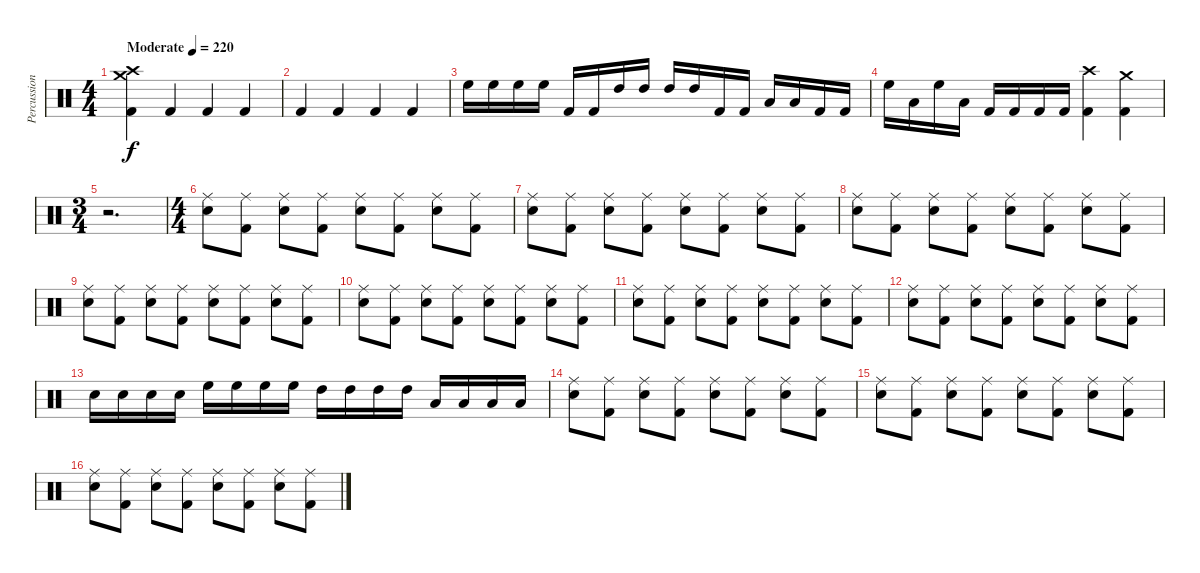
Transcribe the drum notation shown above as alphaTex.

\track ("Percussion" "Percussion") {instrument percussion}
\staff {score}
\articulation defaults
\ts (4 4)
\tempo (220 "Moderate")
\clef neutral
\ks c
("Crash medium (hit)" "Crash high (hit)" "Kick (hit) 2").4{dy f} "Kick (hit) 2".4 "Kick (hit) 2".4 "Kick (hit) 2".4 |
"Kick (hit) 2".4 "Kick (hit) 2".4 "Kick (hit) 2".4 "Kick (hit) 2".4 |
"High Floor Tom (hit)".16 "High Floor Tom (hit)".16 "High Floor Tom (hit)".16 "High Floor Tom (hit)".16 "Kick (hit) 2".16 "Kick (hit) 2".16 "High Tom (hit)".16 "High Tom (hit)".16 "High Tom (hit)".16 "High Tom (hit)".16 "Kick (hit) 2".16 "Kick (hit) 2".16 "Low Floor Tom (hit)".16 "Low Floor Tom (hit)".16 "Kick (hit) 2".16 "Kick (hit) 2".16 |
"High Floor Tom (hit)".16 "Low Floor Tom (hit)".16 "High Floor Tom (hit)".16 "Low Floor Tom (hit)".16 "Kick (hit) 2".16 "Kick (hit) 2".16 "Kick (hit) 2".16 "Kick (hit) 2".16 ("Crash high (hit)" "Kick (hit) 2").4 ("Crash medium (hit)" "Kick (hit) 2").4 |
\ts (3 4)
r.2{d} |
\ts (4 4)
("Ride (middle)" "Snare (hit) 2").8 ("Ride (middle)" "Kick (hit) 2").8 ("Ride (middle)" "Snare (hit) 2").8 ("Ride (middle)" "Kick (hit) 2").8 ("Ride (middle)" "Snare (hit) 2").8 ("Ride (middle)" "Kick (hit) 2").8 ("Ride (middle)" "Snare (hit) 2").8 ("Ride (middle)" "Kick (hit) 2").8 |
("Ride (middle)" "Snare (hit) 2").8 ("Ride (middle)" "Kick (hit) 2").8 ("Ride (middle)" "Snare (hit) 2").8 ("Ride (middle)" "Kick (hit) 2").8 ("Ride (middle)" "Snare (hit) 2").8 ("Ride (middle)" "Kick (hit) 2").8 ("Ride (middle)" "Snare (hit) 2").8 ("Ride (middle)" "Kick (hit) 2").8 |
("Ride (middle)" "Snare (hit) 2").8 ("Ride (middle)" "Kick (hit) 2").8 ("Ride (middle)" "Snare (hit) 2").8 ("Ride (middle)" "Kick (hit) 2").8 ("Ride (middle)" "Snare (hit) 2").8 ("Ride (middle)" "Kick (hit) 2").8 ("Ride (middle)" "Snare (hit) 2").8 ("Ride (middle)" "Kick (hit) 2").8 |
("Ride (middle)" "Snare (hit) 2").8 ("Ride (middle)" "Kick (hit) 2").8 ("Ride (middle)" "Snare (hit) 2").8 ("Ride (middle)" "Kick (hit) 2").8 ("Ride (middle)" "Snare (hit) 2").8 ("Ride (middle)" "Kick (hit) 2").8 ("Ride (middle)" "Snare (hit) 2").8 ("Ride (middle)" "Kick (hit) 2").8 |
("Ride (middle)" "Snare (hit) 2").8 ("Ride (middle)" "Kick (hit) 2").8 ("Ride (middle)" "Snare (hit) 2").8 ("Ride (middle)" "Kick (hit) 2").8 ("Ride (middle)" "Snare (hit) 2").8 ("Ride (middle)" "Kick (hit) 2").8 ("Ride (middle)" "Snare (hit) 2").8 ("Ride (middle)" "Kick (hit) 2").8 |
("Ride (middle)" "Snare (hit) 2").8 ("Ride (middle)" "Kick (hit) 2").8 ("Ride (middle)" "Snare (hit) 2").8 ("Ride (middle)" "Kick (hit) 2").8 ("Ride (middle)" "Snare (hit) 2").8 ("Ride (middle)" "Kick (hit) 2").8 ("Ride (middle)" "Snare (hit) 2").8 ("Ride (middle)" "Kick (hit) 2").8 |
("Ride (middle)" "Snare (hit) 2").8 ("Ride (middle)" "Kick (hit) 2").8 ("Ride (middle)" "Snare (hit) 2").8 ("Ride (middle)" "Kick (hit) 2").8 ("Ride (middle)" "Snare (hit) 2").8 ("Ride (middle)" "Kick (hit) 2").8 ("Ride (middle)" "Snare (hit) 2").8 ("Ride (middle)" "Kick (hit) 2").8 |
"Snare (hit) 2".16 "Snare (hit) 2".16 "Snare (hit) 2".16 "Snare (hit) 2".16 "High Floor Tom (hit)".16 "High Floor Tom (hit)".16 "High Floor Tom (hit)".16 "High Floor Tom (hit)".16 "High Tom (hit)".16 "High Tom (hit)".16 "High Tom (hit)".16 "High Tom (hit)".16 "Low Floor Tom (hit)".16 "Low Floor Tom (hit)".16 "Low Floor Tom (hit)".16 "Low Floor Tom (hit)".16 |
("Ride (middle)" "Snare (hit) 2").8 ("Ride (middle)" "Kick (hit) 2").8 ("Ride (middle)" "Snare (hit) 2").8 ("Ride (middle)" "Kick (hit) 2").8 ("Ride (middle)" "Snare (hit) 2").8 ("Ride (middle)" "Kick (hit) 2").8 ("Ride (middle)" "Snare (hit) 2").8 ("Ride (middle)" "Kick (hit) 2").8 |
("Ride (middle)" "Snare (hit) 2").8 ("Ride (middle)" "Kick (hit) 2").8 ("Ride (middle)" "Snare (hit) 2").8 ("Ride (middle)" "Kick (hit) 2").8 ("Ride (middle)" "Snare (hit) 2").8 ("Ride (middle)" "Kick (hit) 2").8 ("Ride (middle)" "Snare (hit) 2").8 ("Ride (middle)" "Kick (hit) 2").8 |
("Ride (middle)" "Snare (hit) 2").8 ("Ride (middle)" "Kick (hit) 2").8 ("Ride (middle)" "Snare (hit) 2").8 ("Ride (middle)" "Kick (hit) 2").8 ("Ride (middle)" "Snare (hit) 2").8 ("Ride (middle)" "Kick (hit) 2").8 ("Ride (middle)" "Snare (hit) 2").8 ("Ride (middle)" "Kick (hit) 2").8
